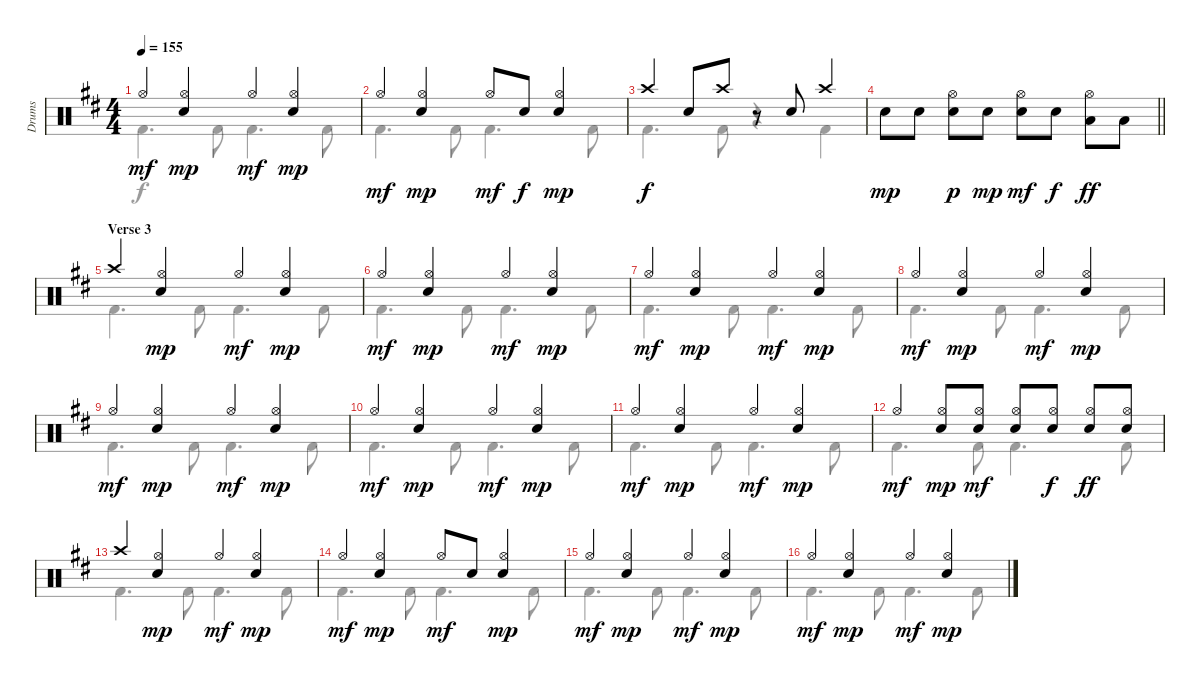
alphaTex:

\track ("Drums" "Drums") {instrument percussion}
\staff {score}
\articulation defaults
\voice
\ts (4 4)
\tempo 155
\clef neutral
\ks d "Hi-Hat (open)".4{dy mf}
("Hi-Hat (open)" "Electric Snare (hit)").4{dy mp} "Hi-Hat (open)".4{dy mf} ("Hi-Hat (open)" "Electric Snare (hit)").4{dy mp} |
"Hi-Hat (open)".4{dy mf} ("Hi-Hat (open)" "Electric Snare (hit)").4{dy mp} "Hi-Hat (open)".8{dy mf} "Electric Snare (hit)".8{dy f} ("Hi-Hat (open)" "Electric Snare (hit)").4{dy mp} |
"Crash high (hit)".4{dy f} "Electric Snare (hit)".8 "Crash high (hit)".8 r.8 "Electric Snare (hit)".8 "Crash high (hit)".4 |
\barLineRight lightlight "Electric Snare (hit)".8{dy mp} "Electric Snare (hit)".8
("Hi-Hat (open)" "Electric Snare (hit)").8{dy p} "Electric Snare (hit)".8{dy mp} ("Hi-Hat (open)" "Electric Snare (hit)").8{dy mf} "Electric Snare (hit)".8{dy f} ("Hi-Hat (open)" "Low Tom (hit)").8{dy ff} "Low Tom (hit)".8 |
\section ("" "Verse 3")
"Crash high (hit)".4 ("Hi-Hat (open)" "Electric Snare (hit)").4{dy mp} "Hi-Hat (open)".4{dy mf} ("Hi-Hat (open)" "Electric Snare (hit)").4{dy mp} |
"Hi-Hat (open)".4{dy mf} ("Hi-Hat (open)" "Electric Snare (hit)").4{dy mp} "Hi-Hat (open)".4{dy mf} ("Hi-Hat (open)" "Electric Snare (hit)").4{dy mp} |
"Hi-Hat (open)".4{dy mf} ("Hi-Hat (open)" "Electric Snare (hit)").4{dy mp} "Hi-Hat (open)".4{dy mf} ("Hi-Hat (open)" "Electric Snare (hit)").4{dy mp} |
"Hi-Hat (open)".4{dy mf} ("Hi-Hat (open)" "Electric Snare (hit)").4{dy mp} "Hi-Hat (open)".4{dy mf} ("Hi-Hat (open)" "Electric Snare (hit)").4{dy mp} |
"Hi-Hat (open)".4{dy mf} ("Hi-Hat (open)" "Electric Snare (hit)").4{dy mp} "Hi-Hat (open)".4{dy mf} ("Hi-Hat (open)" "Electric Snare (hit)").4{dy mp} |
"Hi-Hat (open)".4{dy mf} ("Hi-Hat (open)" "Electric Snare (hit)").4{dy mp} "Hi-Hat (open)".4{dy mf} ("Hi-Hat (open)" "Electric Snare (hit)").4{dy mp} |
"Hi-Hat (open)".4{dy mf} ("Hi-Hat (open)" "Electric Snare (hit)").4{dy mp} "Hi-Hat (open)".4{dy mf} ("Hi-Hat (open)" "Electric Snare (hit)").4{dy mp} |
"Hi-Hat (open)".4{dy mf} ("Hi-Hat (open)" "Electric Snare (hit)").8{dy mp} ("Hi-Hat (open)" "Electric Snare (hit)").8{dy mf} ("Hi-Hat (open)" "Electric Snare (hit)").8 ("Hi-Hat (open)" "Electric Snare (hit)").8{dy f} ("Hi-Hat (open)" "Electric Snare (hit)").8{dy ff} ("Hi-Hat (open)" "Electric Snare (hit)").8 |
"Crash high (hit)".4 ("Hi-Hat (open)" "Electric Snare (hit)").4{dy mp} "Hi-Hat (open)".4{dy mf} ("Hi-Hat (open)" "Electric Snare (hit)").4{dy mp} |
"Hi-Hat (open)".4{dy mf} ("Hi-Hat (open)" "Electric Snare (hit)").4{dy mp} "Hi-Hat (open)".8{dy mf} "Electric Snare (hit)".8 ("Hi-Hat (open)" "Electric Snare (hit)").4{dy mp} |
"Hi-Hat (open)".4{dy mf} ("Hi-Hat (open)" "Electric Snare (hit)").4{dy mp} "Hi-Hat (open)".4{dy mf} ("Hi-Hat (open)" "Electric Snare (hit)").4{dy mp} |
"Hi-Hat (open)".4{dy mf} ("Hi-Hat (open)" "Electric Snare (hit)").4{dy mp} "Hi-Hat (open)".4{dy mf} ("Hi-Hat (open)" "Electric Snare (hit)").4{dy mp}
\voice
\clef neutral
\ottava regular
\simile none
\ks d "Kick (hit) 2".4{d dy f} "Kick (hit) 2".8 "Kick (hit) 2".4{d} "Kick (hit) 2".8
|
"Kick (hit) 2".4{d} "Kick (hit) 2".8 "Kick (hit) 2".4{d} "Kick (hit) 2".8 |
"Kick (hit) 2".4{d} "Kick (hit) 2".8 r.4 "Kick (hit) 2".4 |
\barLineRight lightlight
|
"Kick (hit) 2".4{d} "Kick (hit) 2".8 "Kick (hit) 2".4{d} "Kick (hit) 2".8 |
"Kick (hit) 2".4{d} "Kick (hit) 2".8 "Kick (hit) 2".4{d} "Kick (hit) 2".8 |
"Kick (hit) 2".4{d} "Kick (hit) 2".8 "Kick (hit) 2".4{d} "Kick (hit) 2".8 |
"Kick (hit) 2".4{d} "Kick (hit) 2".8 "Kick (hit) 2".4{d} "Kick (hit) 2".8 |
"Kick (hit) 2".4{d} "Kick (hit) 2".8 "Kick (hit) 2".4{d} "Kick (hit) 2".8 |
"Kick (hit) 2".4{d} "Kick (hit) 2".8 "Kick (hit) 2".4{d} "Kick (hit) 2".8 |
"Kick (hit) 2".4{d} "Kick (hit) 2".8 "Kick (hit) 2".4{d} "Kick (hit) 2".8 |
"Kick (hit) 2".4{d} "Kick (hit) 2".8 "Kick (hit) 2".4{d} "Kick (hit) 2".8 |
"Kick (hit) 2".4{d} "Kick (hit) 2".8 "Kick (hit) 2".4{d} "Kick (hit) 2".8 |
"Kick (hit) 2".4{d} "Kick (hit) 2".8 "Kick (hit) 2".4{d} "Kick (hit) 2".8 |
"Kick (hit) 2".4{d} "Kick (hit) 2".8 "Kick (hit) 2".4{d} "Kick (hit) 2".8 |
"Kick (hit) 2".4{d} "Kick (hit) 2".8 "Kick (hit) 2".4{d} "Kick (hit) 2".8
